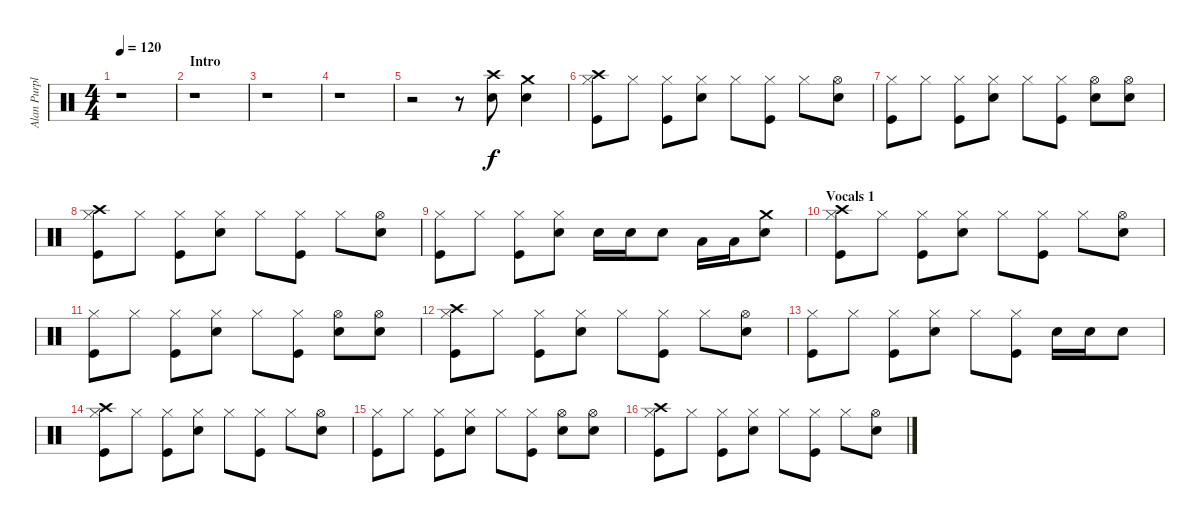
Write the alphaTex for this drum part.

\track ("Alan Purple" "Alan Purpl") {instrument percussion}
\staff {score}
\articulation defaults
\ts (4 4)
\tempo 120
\clef neutral
\ks c
r.1{dy f} |
\section ("" "Intro")
r.1 |
r.1 |
r.1 |
r.2 r.8 ("Crash high (hit)" "Electric Snare (hit)").8 ("Crash medium (hit)" "Snare (hit) 2").4 |
("Crash high (hit)" "Hi-Hat (closed)" "Kick (hit)").8 "Hi-Hat (closed)".8 ("Hi-Hat (closed)" "Kick (hit)").8 ("Hi-Hat (closed)" "Snare (hit) 2").8 "Hi-Hat (closed)".8 ("Hi-Hat (closed)" "Kick (hit)").8 "Hi-Hat (closed)".8 ("Hi-Hat (open)" "Snare (hit) 2").8 |
("Hi-Hat (closed)" "Kick (hit)").8 "Hi-Hat (closed)".8 ("Hi-Hat (closed)" "Kick (hit)").8 ("Hi-Hat (closed)" "Snare (hit) 2").8 "Hi-Hat (closed)".8 ("Hi-Hat (closed)" "Kick (hit)").8 ("Hi-Hat (open)" "Electric Snare (hit)").8 ("Hi-Hat (open)" "Snare (hit) 2").8 |
("Crash high (hit)" "Hi-Hat (closed)" "Kick (hit)").8 "Hi-Hat (closed)".8 ("Hi-Hat (closed)" "Kick (hit)").8 ("Hi-Hat (closed)" "Snare (hit) 2").8 "Hi-Hat (closed)".8 ("Hi-Hat (closed)" "Kick (hit)").8 "Hi-Hat (closed)".8 ("Hi-Hat (open)" "Snare (hit) 2").8 |
("Hi-Hat (closed)" "Kick (hit)").8 "Hi-Hat (closed)".8 ("Hi-Hat (closed)" "Kick (hit)").8 ("Hi-Hat (closed)" "Snare (hit) 2").8 "Electric Snare (hit)".16 "Electric Snare (hit)".16 "Snare (hit) 2".8 "Low Tom (hit)".16 "Low Tom (hit)".16 ("Crash medium (hit)" "Electric Snare (hit)").8 |
\section ("" "Vocals 1")
("Crash high (hit)" "Hi-Hat (closed)" "Kick (hit)").8 "Hi-Hat (closed)".8 ("Hi-Hat (closed)" "Kick (hit)").8 ("Hi-Hat (closed)" "Snare (hit) 2").8 "Hi-Hat (closed)".8 ("Hi-Hat (closed)" "Kick (hit)").8 "Hi-Hat (closed)".8 ("Hi-Hat (open)" "Snare (hit) 2").8 |
("Hi-Hat (closed)" "Kick (hit)").8 "Hi-Hat (closed)".8 ("Hi-Hat (closed)" "Kick (hit)").8 ("Hi-Hat (closed)" "Snare (hit) 2").8 "Hi-Hat (closed)".8 ("Hi-Hat (closed)" "Kick (hit)").8 ("Hi-Hat (open)" "Electric Snare (hit)").8 ("Hi-Hat (open)" "Snare (hit) 2").8 |
("Crash high (hit)" "Hi-Hat (closed)" "Kick (hit)").8 "Hi-Hat (closed)".8 ("Hi-Hat (closed)" "Kick (hit)").8 ("Hi-Hat (closed)" "Snare (hit) 2").8 "Hi-Hat (closed)".8 ("Hi-Hat (closed)" "Kick (hit)").8 "Hi-Hat (closed)".8 ("Hi-Hat (open)" "Snare (hit) 2").8 |
("Hi-Hat (closed)" "Kick (hit)").8 "Hi-Hat (closed)".8 ("Hi-Hat (closed)" "Kick (hit)").8 ("Hi-Hat (closed)" "Snare (hit) 2").8 "Hi-Hat (closed)".8 ("Hi-Hat (closed)" "Kick (hit)").8 "Electric Snare (hit)".16 "Electric Snare (hit)".16 "Electric Snare (hit)".8 |
("Crash high (hit)" "Hi-Hat (closed)" "Kick (hit)").8 "Hi-Hat (closed)".8 ("Hi-Hat (closed)" "Kick (hit)").8 ("Hi-Hat (closed)" "Snare (hit) 2").8 "Hi-Hat (closed)".8 ("Hi-Hat (closed)" "Kick (hit)").8 "Hi-Hat (closed)".8 ("Hi-Hat (open)" "Snare (hit) 2").8 |
("Hi-Hat (closed)" "Kick (hit)").8 "Hi-Hat (closed)".8 ("Hi-Hat (closed)" "Kick (hit)").8 ("Hi-Hat (closed)" "Snare (hit) 2").8 "Hi-Hat (closed)".8 ("Hi-Hat (closed)" "Kick (hit)").8 ("Hi-Hat (open)" "Electric Snare (hit)").8 ("Hi-Hat (open)" "Snare (hit) 2").8 |
("Crash high (hit)" "Hi-Hat (closed)" "Kick (hit)").8 "Hi-Hat (closed)".8 ("Hi-Hat (closed)" "Kick (hit)").8 ("Hi-Hat (closed)" "Snare (hit) 2").8 "Hi-Hat (closed)".8 ("Hi-Hat (closed)" "Kick (hit)").8 "Hi-Hat (closed)".8 ("Hi-Hat (open)" "Snare (hit) 2").8
